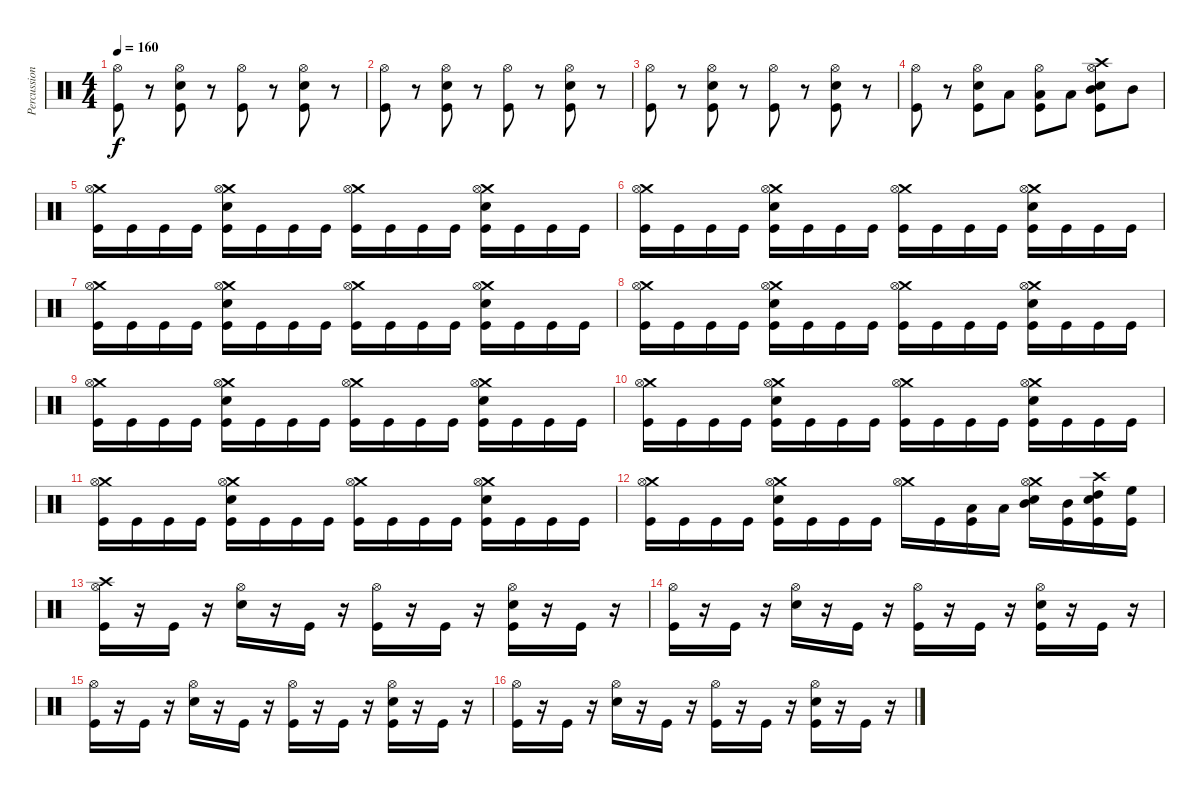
\track ("Percussion" "Percussion") {instrument percussion}
\staff {score}
\articulation defaults
\ts (4 4)
\tempo 160
\clef neutral
\ks c
("Hi-Hat (open)" "Kick (hit)").8{dy f} r.8 ("Snare (hit) 2" "Hi-Hat (open)" "Kick (hit)").8 r.8 ("Hi-Hat (open)" "Kick (hit)").8 r.8 ("Snare (hit) 2" "Hi-Hat (open)" "Kick (hit)").8 r.8 |
("Hi-Hat (open)" "Kick (hit)").8 r.8 ("Snare (hit) 2" "Hi-Hat (open)" "Kick (hit)").8 r.8 ("Hi-Hat (open)" "Kick (hit)").8 r.8 ("Snare (hit) 2" "Hi-Hat (open)" "Kick (hit)").8 r.8 |
("Hi-Hat (open)" "Kick (hit)").8 r.8 ("Snare (hit) 2" "Hi-Hat (open)" "Kick (hit)").8 r.8 ("Hi-Hat (open)" "Kick (hit)").8 r.8 ("Snare (hit) 2" "Hi-Hat (open)" "Kick (hit)").8 r.8 |
("Hi-Hat (open)" "Kick (hit)").8 r.8 ("Snare (hit) 2" "Hi-Hat (open)" "Kick (hit)").8 "Low Tom (hit)".8 ("Low Tom (hit)" "Hi-Hat (open)" "Kick (hit)").8 "Low Tom (hit)".8 ("Crash high (hit)" "Mid Tom (hit)" "Snare (hit) 2" "Hi-Hat (open)" "Kick (hit)").8 "Mid Tom (hit)".8 |
("Crash medium (hit)" "Hi-Hat (open)" "Kick (hit)").16 "Kick (hit)".16 "Kick (hit)".16 "Kick (hit)".16 ("Crash medium (hit)" "Snare (hit) 2" "Hi-Hat (open)" "Kick (hit)").16 "Kick (hit)".16 "Kick (hit)".16 "Kick (hit)".16 ("Crash medium (hit)" "Hi-Hat (open)" "Kick (hit)").16 "Kick (hit)".16 "Kick (hit)".16 "Kick (hit)".16 ("Crash medium (hit)" "Snare (hit) 2" "Hi-Hat (open)" "Kick (hit)").16 "Kick (hit)".16 "Kick (hit)".16 "Kick (hit)".16 |
("Crash medium (hit)" "Hi-Hat (open)" "Kick (hit)").16 "Kick (hit)".16 "Kick (hit)".16 "Kick (hit)".16 ("Crash medium (hit)" "Snare (hit) 2" "Hi-Hat (open)" "Kick (hit)").16 "Kick (hit)".16 "Kick (hit)".16 "Kick (hit)".16 ("Crash medium (hit)" "Hi-Hat (open)" "Kick (hit)").16 "Kick (hit)".16 "Kick (hit)".16 "Kick (hit)".16 ("Crash medium (hit)" "Snare (hit) 2" "Hi-Hat (open)" "Kick (hit)").16 "Kick (hit)".16 "Kick (hit)".16 "Kick (hit)".16 |
("Crash medium (hit)" "Hi-Hat (open)" "Kick (hit)").16 "Kick (hit)".16 "Kick (hit)".16 "Kick (hit)".16 ("Crash medium (hit)" "Snare (hit) 2" "Hi-Hat (open)" "Kick (hit)").16 "Kick (hit)".16 "Kick (hit)".16 "Kick (hit)".16 ("Crash medium (hit)" "Hi-Hat (open)" "Kick (hit)").16 "Kick (hit)".16 "Kick (hit)".16 "Kick (hit)".16 ("Crash medium (hit)" "Snare (hit) 2" "Hi-Hat (open)" "Kick (hit)").16 "Kick (hit)".16 "Kick (hit)".16 "Kick (hit)".16 |
("Crash medium (hit)" "Hi-Hat (open)" "Kick (hit)").16 "Kick (hit)".16 "Kick (hit)".16 "Kick (hit)".16 ("Crash medium (hit)" "Snare (hit) 2" "Hi-Hat (open)" "Kick (hit)").16 "Kick (hit)".16 "Kick (hit)".16 "Kick (hit)".16 ("Crash medium (hit)" "Hi-Hat (open)" "Kick (hit)").16 "Kick (hit)".16 "Kick (hit)".16 "Kick (hit)".16 ("Crash medium (hit)" "Snare (hit) 2" "Hi-Hat (open)" "Kick (hit)").16 "Kick (hit)".16 "Kick (hit)".16 "Kick (hit)".16 |
("Crash medium (hit)" "Hi-Hat (open)" "Kick (hit)").16 "Kick (hit)".16 "Kick (hit)".16 "Kick (hit)".16 ("Crash medium (hit)" "Snare (hit) 2" "Hi-Hat (open)" "Kick (hit)").16 "Kick (hit)".16 "Kick (hit)".16 "Kick (hit)".16 ("Crash medium (hit)" "Hi-Hat (open)" "Kick (hit)").16 "Kick (hit)".16 "Kick (hit)".16 "Kick (hit)".16 ("Crash medium (hit)" "Snare (hit) 2" "Hi-Hat (open)" "Kick (hit)").16 "Kick (hit)".16 "Kick (hit)".16 "Kick (hit)".16 |
("Crash medium (hit)" "Hi-Hat (open)" "Kick (hit)").16 "Kick (hit)".16 "Kick (hit)".16 "Kick (hit)".16 ("Crash medium (hit)" "Snare (hit) 2" "Hi-Hat (open)" "Kick (hit)").16 "Kick (hit)".16 "Kick (hit)".16 "Kick (hit)".16 ("Crash medium (hit)" "Hi-Hat (open)" "Kick (hit)").16 "Kick (hit)".16 "Kick (hit)".16 "Kick (hit)".16 ("Crash medium (hit)" "Snare (hit) 2" "Hi-Hat (open)" "Kick (hit)").16 "Kick (hit)".16 "Kick (hit)".16 "Kick (hit)".16 |
("Crash medium (hit)" "Hi-Hat (open)" "Kick (hit)").16 "Kick (hit)".16 "Kick (hit)".16 "Kick (hit)".16 ("Crash medium (hit)" "Snare (hit) 2" "Hi-Hat (open)" "Kick (hit)").16 "Kick (hit)".16 "Kick (hit)".16 "Kick (hit)".16 ("Crash medium (hit)" "Hi-Hat (open)" "Kick (hit)").16 "Kick (hit)".16 "Kick (hit)".16 "Kick (hit)".16 ("Crash medium (hit)" "Snare (hit) 2" "Hi-Hat (open)" "Kick (hit)").16 "Kick (hit)".16 "Kick (hit)".16 "Kick (hit)".16 |
("Crash medium (hit)" "Hi-Hat (open)" "Kick (hit)").16 "Kick (hit)".16 "Kick (hit)".16 "Kick (hit)".16 ("Crash medium (hit)" "Snare (hit) 2" "Hi-Hat (open)" "Kick (hit)").16 "Kick (hit)".16 "Kick (hit)".16 "Kick (hit)".16 ("Crash medium (hit)" "Hi-Hat (open)").16 "Kick (hit)".16 ("Low Tom (hit)" "Kick (hit)").16 "Low Tom (hit)".16 ("Crash medium (hit)" "Snare (hit) 2" "Mid Tom (hit)" "Hi-Hat (open)").16 ("Mid Tom (hit)" "Kick (hit)").16 ("Crash high (hit)" "Snare (hit) 2" "High Tom (hit)" "Kick (hit)").16 ("High Floor Tom (hit)" "Kick (hit)").16 |
("Crash high (hit)" "Hi-Hat (open)" "Kick (hit)").16 r.16 "Kick (hit)".16 r.16 ("Snare (hit) 2" "Hi-Hat (open)").16 r.16 "Kick (hit)".16 r.16 ("Hi-Hat (open)" "Kick (hit)").16 r.16 "Kick (hit)".16 r.16 ("Snare (hit) 2" "Hi-Hat (open)" "Kick (hit)").16 r.16 "Kick (hit)".16 r.16 |
("Hi-Hat (open)" "Kick (hit)").16 r.16 "Kick (hit)".16 r.16 ("Snare (hit) 2" "Hi-Hat (open)").16 r.16 "Kick (hit)".16 r.16 ("Hi-Hat (open)" "Kick (hit)").16 r.16 "Kick (hit)".16 r.16 ("Snare (hit) 2" "Hi-Hat (open)" "Kick (hit)").16 r.16 "Kick (hit)".16 r.16 |
("Hi-Hat (open)" "Kick (hit)").16 r.16 "Kick (hit)".16 r.16 ("Snare (hit) 2" "Hi-Hat (open)").16 r.16 "Kick (hit)".16 r.16 ("Hi-Hat (open)" "Kick (hit)").16 r.16 "Kick (hit)".16 r.16 ("Snare (hit) 2" "Hi-Hat (open)" "Kick (hit)").16 r.16 "Kick (hit)".16 r.16 |
("Hi-Hat (open)" "Kick (hit)").16 r.16 "Kick (hit)".16 r.16 ("Snare (hit) 2" "Hi-Hat (open)").16 r.16 "Kick (hit)".16 r.16 ("Hi-Hat (open)" "Kick (hit)").16 r.16 "Kick (hit)".16 r.16 ("Snare (hit) 2" "Hi-Hat (open)" "Kick (hit)").16 r.16 "Kick (hit)".16 r.16
